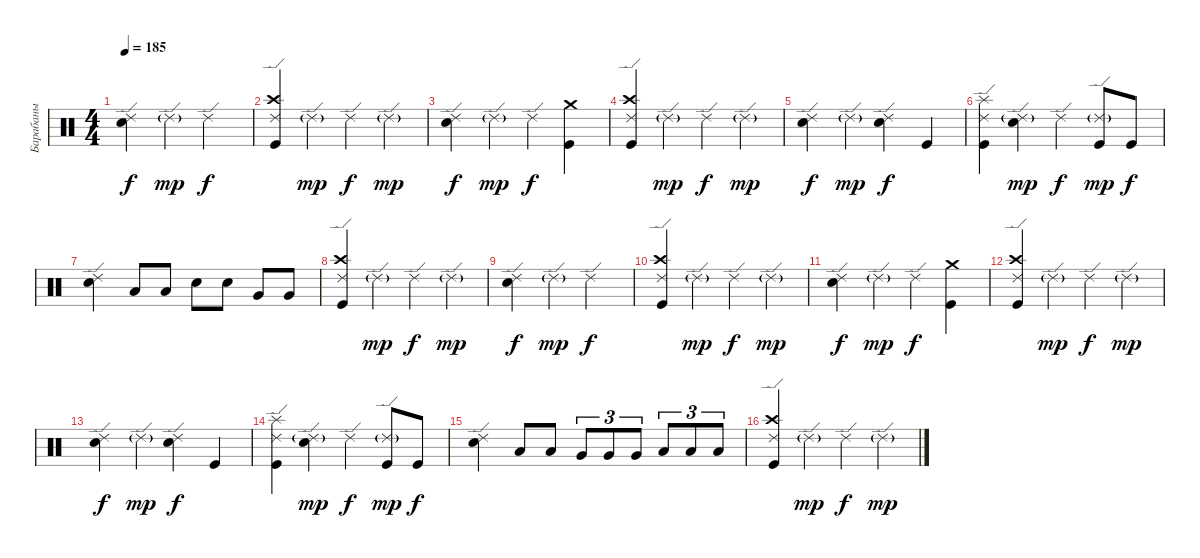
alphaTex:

\track ("Барабаны" "Барабаны") {instrument percussion}
\staff {score}
\articulation defaults
\ts (4 4)
\tempo 185
\clef neutral
\ks c
("Ride (edge) 2" "Electric Snare (hit)").4{dy f} "Ride (edge) 2"{g}.4{dy mp} "Ride (edge) 2".2{dy f} |
("Ride (edge) 2" "Crash high (hit)" "Kick (hit)").4 "Ride (edge) 2"{g}.4{dy mp} "Ride (edge) 2".4{dy f} "Ride (edge) 2"{g}.4{dy mp} |
("Ride (edge) 2" "Electric Snare (hit)").4{dy f} "Ride (edge) 2"{g}.4{dy mp} "Ride (edge) 2".4{dy f} ("Crash medium (hit)" "Kick (hit)").4 |
("Ride (edge) 2" "Crash high (hit)" "Kick (hit)").4 "Ride (edge) 2"{g}.4{dy mp} "Ride (edge) 2".4{dy f} "Ride (edge) 2"{g}.4{dy mp} |
("Ride (edge) 2" "Electric Snare (hit)").4{dy f} "Ride (edge) 2"{g}.4{dy mp} ("Ride (edge) 2" "Electric Snare (hit)").4{dy f} "Kick (hit)".4 |
("Ride (edge) 2" "Splash (hit)" "Kick (hit)").4 ("Ride (edge) 2"{g} "Electric Snare (hit)").4{dy mp} "Ride (edge) 2".4{dy f} ("Ride (edge) 2"{g} "Kick (hit)").8{dy mp} "Kick (hit)".8{dy f} |
("Ride (edge) 2" "Electric Snare (hit)").4 "Low Tom (hit)".8 "Low Tom (hit)".8 "Electric Snare (hit)".8 "Electric Snare (hit)".8 "Very Low Tom (hit)".8 "Very Low Tom (hit)".8 |
("Ride (edge) 2" "Crash high (hit)" "Kick (hit)").4 "Ride (edge) 2"{g}.4{dy mp} "Ride (edge) 2".4{dy f} "Ride (edge) 2"{g}.4{dy mp} |
("Ride (edge) 2" "Electric Snare (hit)").4{dy f} "Ride (edge) 2"{g}.4{dy mp} "Ride (edge) 2".2{dy f} |
("Ride (edge) 2" "Crash high (hit)" "Kick (hit)").4 "Ride (edge) 2"{g}.4{dy mp} "Ride (edge) 2".4{dy f} "Ride (edge) 2"{g}.4{dy mp} |
("Ride (edge) 2" "Electric Snare (hit)").4{dy f} "Ride (edge) 2"{g}.4{dy mp} "Ride (edge) 2".4{dy f} ("Crash medium (hit)" "Kick (hit)").4 |
("Ride (edge) 2" "Crash high (hit)" "Kick (hit)").4 "Ride (edge) 2"{g}.4{dy mp} "Ride (edge) 2".4{dy f} "Ride (edge) 2"{g}.4{dy mp} |
("Ride (edge) 2" "Electric Snare (hit)").4{dy f} "Ride (edge) 2"{g}.4{dy mp} ("Ride (edge) 2" "Electric Snare (hit)").4{dy f} "Kick (hit)".4 |
("Ride (edge) 2" "Splash (hit)" "Kick (hit)").4 ("Ride (edge) 2"{g} "Electric Snare (hit)").4{dy mp} "Ride (edge) 2".4{dy f} ("Ride (edge) 2"{g} "Kick (hit)").8{dy mp} "Kick (hit)".8{dy f} |
("Ride (edge) 2" "Electric Snare (hit)").4 "Low Tom (hit)".8 "Low Tom (hit)".8 "Very Low Tom (hit)".8{tu (3 2)} "Very Low Tom (hit)".8{tu (3 2)} "Very Low Tom (hit)".8{tu (3 2)} "Low Floor Tom (hit)".8{tu (3 2)} "Low Floor Tom (hit)".8{tu (3 2)} "Low Floor Tom (hit)".8{tu (3 2)} |
("Ride (edge) 2" "Crash high (hit)" "Kick (hit)").4 "Ride (edge) 2"{g}.4{dy mp} "Ride (edge) 2".4{dy f} "Ride (edge) 2"{g}.4{dy mp}
